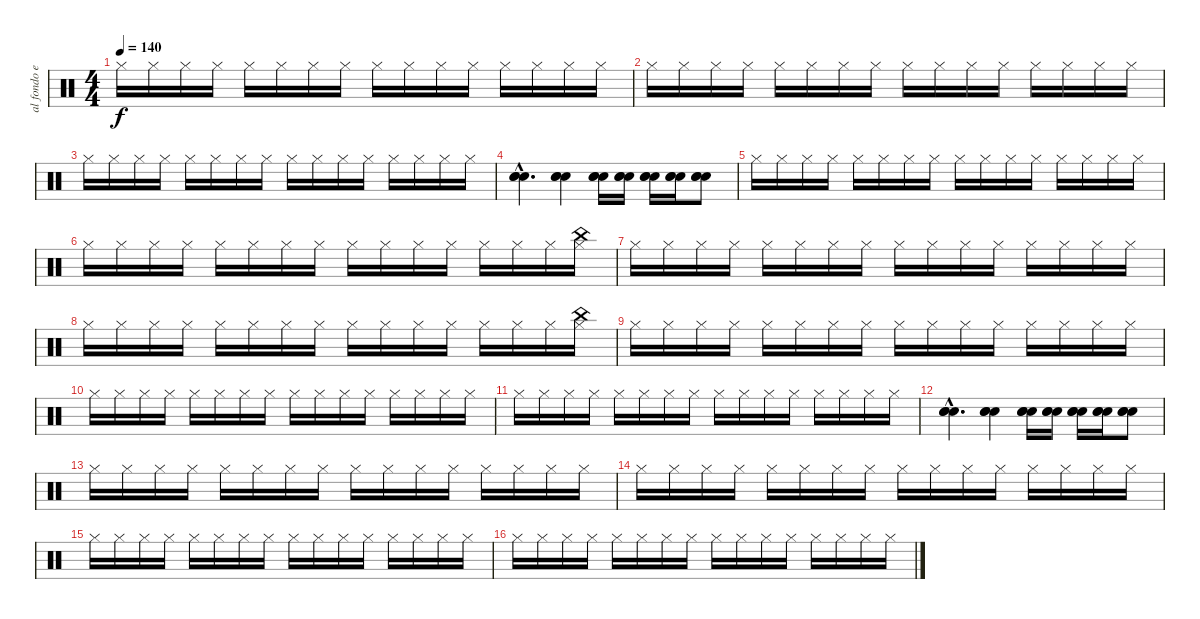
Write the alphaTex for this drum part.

\track ("al fondo en la bateria Mr Pedro Andreu" "al fondo e") {instrument percussion}
\staff {score}
\articulation defaults
\ts (4 4)
\tempo 140
\clef neutral
\ks c "Hi-Hat (closed)".16{dy f} "Hi-Hat (closed)".16 "Hi-Hat (closed)".16 "Hi-Hat (closed)".16 "Hi-Hat (closed)".16 "Hi-Hat (closed)".16 "Hi-Hat (closed)".16 "Hi-Hat (closed)".16 "Hi-Hat (closed)".16 "Hi-Hat (closed)".16 "Hi-Hat (closed)".16 "Hi-Hat (closed)".16 "Hi-Hat (closed)".16 "Hi-Hat (closed)".16 "Hi-Hat (closed)".16 "Hi-Hat (closed)".16
|
"Hi-Hat (closed)".16 "Hi-Hat (closed)".16 "Hi-Hat (closed)".16 "Hi-Hat (closed)".16 "Hi-Hat (closed)".16 "Hi-Hat (closed)".16 "Hi-Hat (closed)".16 "Hi-Hat (closed)".16 "Hi-Hat (closed)".16 "Hi-Hat (closed)".16 "Hi-Hat (closed)".16 "Hi-Hat (closed)".16 "Hi-Hat (closed)".16 "Hi-Hat (closed)".16 "Hi-Hat (closed)".16 "Hi-Hat (closed)".16 |
"Hi-Hat (closed)".16 "Hi-Hat (closed)".16 "Hi-Hat (closed)".16 "Hi-Hat (closed)".16 "Hi-Hat (closed)".16 "Hi-Hat (closed)".16 "Hi-Hat (closed)".16 "Hi-Hat (closed)".16 "Hi-Hat (closed)".16 "Hi-Hat (closed)".16 "Hi-Hat (closed)".16 "Hi-Hat (closed)".16 "Hi-Hat (closed)".16 "Hi-Hat (closed)".16 "Hi-Hat (closed)".16 "Hi-Hat (closed)".16 |
("Snare (hit) 2"{hac} "Snare (hit) 2"{hac} "Snare (hit) 2"{hac}).4{d} ("Snare (hit) 2" "Snare (hit) 2" "Snare (hit) 2").4 ("Snare (hit) 2" "Snare (hit) 2" "Snare (hit) 2").16 ("Snare (hit) 2" "Snare (hit) 2" "Snare (hit) 2").16 ("Snare (hit) 2" "Snare (hit) 2" "Snare (hit) 2").16 ("Snare (hit) 2" "Snare (hit) 2" "Snare (hit) 2").16 ("Snare (hit) 2" "Snare (hit) 2" "Snare (hit) 2").8 |
"Hi-Hat (closed)".16 "Hi-Hat (closed)".16 "Hi-Hat (closed)".16 "Hi-Hat (closed)".16 "Hi-Hat (closed)".16 "Hi-Hat (closed)".16 "Hi-Hat (closed)".16 "Hi-Hat (closed)".16 "Hi-Hat (closed)".16 "Hi-Hat (closed)".16 "Hi-Hat (closed)".16 "Hi-Hat (closed)".16 "Hi-Hat (closed)".16 "Hi-Hat (closed)".16 "Hi-Hat (closed)".16 "Hi-Hat (closed)".16 |
"Hi-Hat (closed)".16 "Hi-Hat (closed)".16 "Hi-Hat (closed)".16 "Hi-Hat (closed)".16 "Hi-Hat (closed)".16 "Hi-Hat (closed)".16 "Hi-Hat (closed)".16 "Hi-Hat (closed)".16 "Hi-Hat (closed)".16 "Hi-Hat (closed)".16 "Hi-Hat (closed)".16 "Hi-Hat (closed)".16 "Hi-Hat (closed)".16 "Hi-Hat (closed)".16 "Hi-Hat (closed)".16 ("Hi-Hat (closed)" "China (hit)").16 |
"Hi-Hat (closed)".16 "Hi-Hat (closed)".16 "Hi-Hat (closed)".16 "Hi-Hat (closed)".16 "Hi-Hat (closed)".16 "Hi-Hat (closed)".16 "Hi-Hat (closed)".16 "Hi-Hat (closed)".16 "Hi-Hat (closed)".16 "Hi-Hat (closed)".16 "Hi-Hat (closed)".16 "Hi-Hat (closed)".16 "Hi-Hat (closed)".16 "Hi-Hat (closed)".16 "Hi-Hat (closed)".16 "Hi-Hat (closed)".16 |
"Hi-Hat (closed)".16 "Hi-Hat (closed)".16 "Hi-Hat (closed)".16 "Hi-Hat (closed)".16 "Hi-Hat (closed)".16 "Hi-Hat (closed)".16 "Hi-Hat (closed)".16 "Hi-Hat (closed)".16 "Hi-Hat (closed)".16 "Hi-Hat (closed)".16 "Hi-Hat (closed)".16 "Hi-Hat (closed)".16 "Hi-Hat (closed)".16 "Hi-Hat (closed)".16 "Hi-Hat (closed)".16 ("Hi-Hat (closed)" "China (hit)").16 |
"Hi-Hat (closed)".16 "Hi-Hat (closed)".16 "Hi-Hat (closed)".16 "Hi-Hat (closed)".16 "Hi-Hat (closed)".16 "Hi-Hat (closed)".16 "Hi-Hat (closed)".16 "Hi-Hat (closed)".16 "Hi-Hat (closed)".16 "Hi-Hat (closed)".16 "Hi-Hat (closed)".16 "Hi-Hat (closed)".16 "Hi-Hat (closed)".16 "Hi-Hat (closed)".16 "Hi-Hat (closed)".16 "Hi-Hat (closed)".16 |
"Hi-Hat (closed)".16 "Hi-Hat (closed)".16 "Hi-Hat (closed)".16 "Hi-Hat (closed)".16 "Hi-Hat (closed)".16 "Hi-Hat (closed)".16 "Hi-Hat (closed)".16 "Hi-Hat (closed)".16 "Hi-Hat (closed)".16 "Hi-Hat (closed)".16 "Hi-Hat (closed)".16 "Hi-Hat (closed)".16 "Hi-Hat (closed)".16 "Hi-Hat (closed)".16 "Hi-Hat (closed)".16 "Hi-Hat (closed)".16 |
"Hi-Hat (closed)".16 "Hi-Hat (closed)".16 "Hi-Hat (closed)".16 "Hi-Hat (closed)".16 "Hi-Hat (closed)".16 "Hi-Hat (closed)".16 "Hi-Hat (closed)".16 "Hi-Hat (closed)".16 "Hi-Hat (closed)".16 "Hi-Hat (closed)".16 "Hi-Hat (closed)".16 "Hi-Hat (closed)".16 "Hi-Hat (closed)".16 "Hi-Hat (closed)".16 "Hi-Hat (closed)".16 "Hi-Hat (closed)".16 |
("Snare (hit) 2"{hac} "Snare (hit) 2"{hac} "Snare (hit) 2"{hac}).4{d} ("Snare (hit) 2" "Snare (hit) 2" "Snare (hit) 2").4 ("Snare (hit) 2" "Snare (hit) 2" "Snare (hit) 2").16 ("Snare (hit) 2" "Snare (hit) 2" "Snare (hit) 2").16 ("Snare (hit) 2" "Snare (hit) 2" "Snare (hit) 2").16 ("Snare (hit) 2" "Snare (hit) 2" "Snare (hit) 2").16 ("Snare (hit) 2" "Snare (hit) 2" "Snare (hit) 2").8 |
"Hi-Hat (closed)".16 "Hi-Hat (closed)".16 "Hi-Hat (closed)".16 "Hi-Hat (closed)".16 "Hi-Hat (closed)".16 "Hi-Hat (closed)".16 "Hi-Hat (closed)".16 "Hi-Hat (closed)".16 "Hi-Hat (closed)".16 "Hi-Hat (closed)".16 "Hi-Hat (closed)".16 "Hi-Hat (closed)".16 "Hi-Hat (closed)".16 "Hi-Hat (closed)".16 "Hi-Hat (closed)".16 "Hi-Hat (closed)".16 |
"Hi-Hat (closed)".16 "Hi-Hat (closed)".16 "Hi-Hat (closed)".16 "Hi-Hat (closed)".16 "Hi-Hat (closed)".16 "Hi-Hat (closed)".16 "Hi-Hat (closed)".16 "Hi-Hat (closed)".16 "Hi-Hat (closed)".16 "Hi-Hat (closed)".16 "Hi-Hat (closed)".16 "Hi-Hat (closed)".16 "Hi-Hat (closed)".16 "Hi-Hat (closed)".16 "Hi-Hat (closed)".16 "Hi-Hat (closed)".16 |
"Hi-Hat (closed)".16 "Hi-Hat (closed)".16 "Hi-Hat (closed)".16 "Hi-Hat (closed)".16 "Hi-Hat (closed)".16 "Hi-Hat (closed)".16 "Hi-Hat (closed)".16 "Hi-Hat (closed)".16 "Hi-Hat (closed)".16 "Hi-Hat (closed)".16 "Hi-Hat (closed)".16 "Hi-Hat (closed)".16 "Hi-Hat (closed)".16 "Hi-Hat (closed)".16 "Hi-Hat (closed)".16 "Hi-Hat (closed)".16 |
"Hi-Hat (closed)".16 "Hi-Hat (closed)".16 "Hi-Hat (closed)".16 "Hi-Hat (closed)".16 "Hi-Hat (closed)".16 "Hi-Hat (closed)".16 "Hi-Hat (closed)".16 "Hi-Hat (closed)".16 "Hi-Hat (closed)".16 "Hi-Hat (closed)".16 "Hi-Hat (closed)".16 "Hi-Hat (closed)".16 "Hi-Hat (closed)".16 "Hi-Hat (closed)".16 "Hi-Hat (closed)".16 "Hi-Hat (closed)".16
